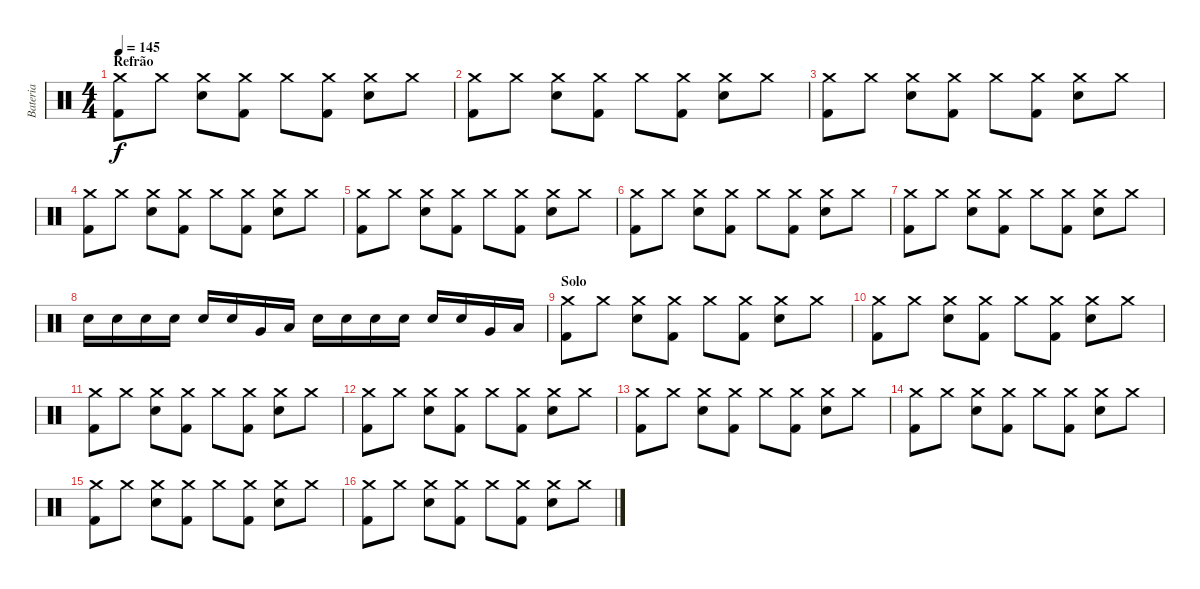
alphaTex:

\track ("Bateria" "Bateria") {instrument percussion}
\staff {score}
\articulation defaults
\ts (4 4)
\section ("" "Refrão")
\tempo 145
\clef neutral
\ks c
("Kick (hit) 2" "Crash medium (hit)").8{dy f} "Crash medium (hit)".8 ("Snare (hit) 2" "Crash medium (hit)").8 ("Kick (hit) 2" "Crash medium (hit)").8 "Crash medium (hit)".8 ("Kick (hit) 2" "Crash medium (hit)").8 ("Snare (hit) 2" "Crash medium (hit)").8 "Crash medium (hit)".8 |
("Kick (hit) 2" "Crash medium (hit)").8 "Crash medium (hit)".8 ("Snare (hit) 2" "Crash medium (hit)").8 ("Kick (hit) 2" "Crash medium (hit)").8 "Crash medium (hit)".8 ("Kick (hit) 2" "Crash medium (hit)").8 ("Snare (hit) 2" "Crash medium (hit)").8 "Crash medium (hit)".8 |
("Kick (hit) 2" "Crash medium (hit)").8 "Crash medium (hit)".8 ("Snare (hit) 2" "Crash medium (hit)").8 ("Kick (hit) 2" "Crash medium (hit)").8 "Crash medium (hit)".8 ("Kick (hit) 2" "Crash medium (hit)").8 ("Snare (hit) 2" "Crash medium (hit)").8 "Crash medium (hit)".8 |
("Kick (hit) 2" "Crash medium (hit)").8 "Crash medium (hit)".8 ("Snare (hit) 2" "Crash medium (hit)").8 ("Kick (hit) 2" "Crash medium (hit)").8 "Crash medium (hit)".8 ("Kick (hit) 2" "Crash medium (hit)").8 ("Snare (hit) 2" "Crash medium (hit)").8 "Crash medium (hit)".8 |
("Kick (hit) 2" "Crash medium (hit)").8 "Crash medium (hit)".8 ("Snare (hit) 2" "Crash medium (hit)").8 ("Kick (hit) 2" "Crash medium (hit)").8 "Crash medium (hit)".8 ("Kick (hit) 2" "Crash medium (hit)").8 ("Snare (hit) 2" "Crash medium (hit)").8 "Crash medium (hit)".8 |
("Kick (hit) 2" "Crash medium (hit)").8 "Crash medium (hit)".8 ("Snare (hit) 2" "Crash medium (hit)").8 ("Kick (hit) 2" "Crash medium (hit)").8 "Crash medium (hit)".8 ("Kick (hit) 2" "Crash medium (hit)").8 ("Snare (hit) 2" "Crash medium (hit)").8 "Crash medium (hit)".8 |
("Kick (hit) 2" "Crash medium (hit)").8 "Crash medium (hit)".8 ("Snare (hit) 2" "Crash medium (hit)").8 ("Kick (hit) 2" "Crash medium (hit)").8 "Crash medium (hit)".8 ("Kick (hit) 2" "Crash medium (hit)").8 ("Snare (hit) 2" "Crash medium (hit)").8 "Crash medium (hit)".8 |
"Snare (hit) 2".16 "Snare (hit) 2".16 "Snare (hit) 2".16 "Snare (hit) 2".16 "Snare (hit) 2".16 "Electric Snare (hit)".16 "Very Low Tom (hit)".16 "Low Floor Tom (hit)".16 "Snare (hit) 2".16 "Snare (hit) 2".16 "Snare (hit) 2".16 "Snare (hit) 2".16 "Snare (hit) 2".16 "Electric Snare (hit)".16 "Very Low Tom (hit)".16 "Low Floor Tom (hit)".16 |
\section ("" "Solo")
("Kick (hit) 2" "Crash medium (hit)").8 "Crash medium (hit)".8 ("Snare (hit) 2" "Crash medium (hit)").8 ("Kick (hit) 2" "Crash medium (hit)").8 "Crash medium (hit)".8 ("Kick (hit) 2" "Crash medium (hit)").8 ("Snare (hit) 2" "Crash medium (hit)").8 "Crash medium (hit)".8 |
("Kick (hit) 2" "Crash medium (hit)").8 "Crash medium (hit)".8 ("Snare (hit) 2" "Crash medium (hit)").8 ("Kick (hit) 2" "Crash medium (hit)").8 "Crash medium (hit)".8 ("Kick (hit) 2" "Crash medium (hit)").8 ("Snare (hit) 2" "Crash medium (hit)").8 "Crash medium (hit)".8 |
("Kick (hit) 2" "Crash medium (hit)").8 "Crash medium (hit)".8 ("Snare (hit) 2" "Crash medium (hit)").8 ("Kick (hit) 2" "Crash medium (hit)").8 "Crash medium (hit)".8 ("Kick (hit) 2" "Crash medium (hit)").8 ("Snare (hit) 2" "Crash medium (hit)").8 "Crash medium (hit)".8 |
("Kick (hit) 2" "Crash medium (hit)").8 "Crash medium (hit)".8 ("Snare (hit) 2" "Crash medium (hit)").8 ("Kick (hit) 2" "Crash medium (hit)").8 "Crash medium (hit)".8 ("Kick (hit) 2" "Crash medium (hit)").8 ("Snare (hit) 2" "Crash medium (hit)").8 "Crash medium (hit)".8 |
("Kick (hit) 2" "Crash medium (hit)").8 "Crash medium (hit)".8 ("Snare (hit) 2" "Crash medium (hit)").8 ("Kick (hit) 2" "Crash medium (hit)").8 "Crash medium (hit)".8 ("Kick (hit) 2" "Crash medium (hit)").8 ("Snare (hit) 2" "Crash medium (hit)").8 "Crash medium (hit)".8 |
("Kick (hit) 2" "Crash medium (hit)").8 "Crash medium (hit)".8 ("Snare (hit) 2" "Crash medium (hit)").8 ("Kick (hit) 2" "Crash medium (hit)").8 "Crash medium (hit)".8 ("Kick (hit) 2" "Crash medium (hit)").8 ("Snare (hit) 2" "Crash medium (hit)").8 "Crash medium (hit)".8 |
("Kick (hit) 2" "Crash medium (hit)").8 "Crash medium (hit)".8 ("Snare (hit) 2" "Crash medium (hit)").8 ("Kick (hit) 2" "Crash medium (hit)").8 "Crash medium (hit)".8 ("Kick (hit) 2" "Crash medium (hit)").8 ("Snare (hit) 2" "Crash medium (hit)").8 "Crash medium (hit)".8 |
("Kick (hit) 2" "Crash medium (hit)").8 "Crash medium (hit)".8 ("Snare (hit) 2" "Crash medium (hit)").8 ("Kick (hit) 2" "Crash medium (hit)").8 "Crash medium (hit)".8 ("Kick (hit) 2" "Crash medium (hit)").8 ("Snare (hit) 2" "Crash medium (hit)").8 "Crash medium (hit)".8
